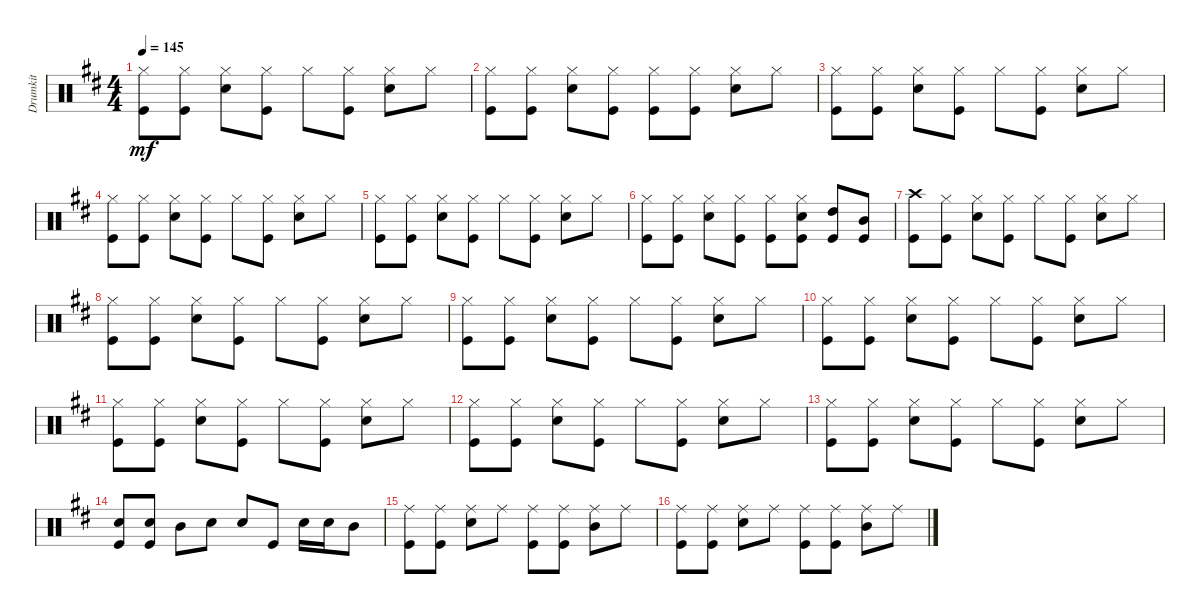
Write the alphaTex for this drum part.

\track ("Drumkit" "Drumkit") {instrument percussion}
\staff {score}
\articulation defaults
\ts (4 4)
\tempo 145
\clef neutral
\ks d
("Kick (hit)" "Hi-Hat (closed)").8{dy mf} ("Kick (hit)" "Hi-Hat (closed)").8 ("Snare (hit) 2" "Hi-Hat (closed)").8 ("Kick (hit)" "Hi-Hat (closed)").8 "Hi-Hat (closed)".8 ("Hi-Hat (closed)" "Kick (hit)").8 ("Hi-Hat (closed)" "Snare (hit) 2").8 "Hi-Hat (closed)".8 |
("Kick (hit)" "Hi-Hat (closed)").8 ("Kick (hit)" "Hi-Hat (closed)").8 ("Snare (hit) 2" "Hi-Hat (closed)").8 ("Kick (hit)" "Hi-Hat (closed)").8 ("Hi-Hat (closed)" "Kick (hit)").8 ("Hi-Hat (closed)" "Kick (hit)").8 ("Hi-Hat (closed)" "Snare (hit) 2").8 "Hi-Hat (closed)".8 |
("Kick (hit)" "Hi-Hat (closed)").8 ("Kick (hit)" "Hi-Hat (closed)").8 ("Snare (hit) 2" "Hi-Hat (closed)").8 ("Kick (hit)" "Hi-Hat (closed)").8 "Hi-Hat (closed)".8 ("Hi-Hat (closed)" "Kick (hit)").8 ("Hi-Hat (closed)" "Snare (hit) 2").8 "Hi-Hat (closed)".8 |
("Kick (hit)" "Hi-Hat (closed)").8 ("Kick (hit)" "Hi-Hat (closed)").8 ("Snare (hit) 2" "Hi-Hat (closed)").8 ("Kick (hit)" "Hi-Hat (closed)").8 "Hi-Hat (closed)".8 ("Hi-Hat (closed)" "Kick (hit)").8 ("Hi-Hat (closed)" "Snare (hit) 2").8 "Hi-Hat (closed)".8 |
("Kick (hit)" "Hi-Hat (closed)").8 ("Kick (hit)" "Hi-Hat (closed)").8 ("Snare (hit) 2" "Hi-Hat (closed)").8 ("Kick (hit)" "Hi-Hat (closed)").8 "Hi-Hat (closed)".8 ("Hi-Hat (closed)" "Kick (hit)").8 ("Hi-Hat (closed)" "Snare (hit) 2").8 "Hi-Hat (closed)".8 |
("Kick (hit)" "Hi-Hat (closed)").8 ("Kick (hit)" "Hi-Hat (closed)").8 ("Snare (hit) 2" "Hi-Hat (closed)").8 ("Kick (hit)" "Hi-Hat (closed)").8 ("Hi-Hat (closed)" "Kick (hit)").8 ("Hi-Hat (closed)" "Kick (hit)" "Snare (hit) 2").8 ("Kick (hit)" "High Tom (hit)").8 ("Kick (hit)" "Mid Tom (hit)").8 |
("Kick (hit)" "Crash high (hit)").8 ("Kick (hit)" "Hi-Hat (closed)").8 ("Snare (hit) 2" "Hi-Hat (closed)").8 ("Kick (hit)" "Hi-Hat (closed)").8 "Hi-Hat (closed)".8 ("Hi-Hat (closed)" "Kick (hit)").8 ("Hi-Hat (closed)" "Snare (hit) 2").8 "Hi-Hat (closed)".8 |
("Kick (hit)" "Hi-Hat (closed)").8 ("Kick (hit)" "Hi-Hat (closed)").8 ("Snare (hit) 2" "Hi-Hat (closed)").8 ("Kick (hit)" "Hi-Hat (closed)").8 "Hi-Hat (closed)".8 ("Hi-Hat (closed)" "Kick (hit)").8 ("Hi-Hat (closed)" "Snare (hit) 2").8 "Hi-Hat (closed)".8 |
("Kick (hit)" "Hi-Hat (closed)").8 ("Kick (hit)" "Hi-Hat (closed)").8 ("Snare (hit) 2" "Hi-Hat (closed)").8 ("Kick (hit)" "Hi-Hat (closed)").8 "Hi-Hat (closed)".8 ("Hi-Hat (closed)" "Kick (hit)").8 ("Hi-Hat (closed)" "Snare (hit) 2").8 "Hi-Hat (closed)".8 |
("Kick (hit)" "Hi-Hat (closed)").8 ("Kick (hit)" "Hi-Hat (closed)").8 ("Snare (hit) 2" "Hi-Hat (closed)").8 ("Kick (hit)" "Hi-Hat (closed)").8 "Hi-Hat (closed)".8 ("Hi-Hat (closed)" "Kick (hit)").8 ("Hi-Hat (closed)" "Snare (hit) 2").8 "Hi-Hat (closed)".8 |
("Kick (hit)" "Hi-Hat (closed)").8 ("Kick (hit)" "Hi-Hat (closed)").8 ("Snare (hit) 2" "Hi-Hat (closed)").8 ("Kick (hit)" "Hi-Hat (closed)").8 "Hi-Hat (closed)".8 ("Hi-Hat (closed)" "Kick (hit)").8 ("Hi-Hat (closed)" "Snare (hit) 2").8 "Hi-Hat (closed)".8 |
("Kick (hit)" "Hi-Hat (closed)").8 ("Kick (hit)" "Hi-Hat (closed)").8 ("Snare (hit) 2" "Hi-Hat (closed)").8 ("Kick (hit)" "Hi-Hat (closed)").8 "Hi-Hat (closed)".8 ("Hi-Hat (closed)" "Kick (hit)").8 ("Hi-Hat (closed)" "Snare (hit) 2").8 "Hi-Hat (closed)".8 |
("Kick (hit)" "Hi-Hat (closed)").8 ("Kick (hit)" "Hi-Hat (closed)").8 ("Snare (hit) 2" "Hi-Hat (closed)").8 ("Kick (hit)" "Hi-Hat (closed)").8 "Hi-Hat (closed)".8 ("Hi-Hat (closed)" "Kick (hit)").8 ("Hi-Hat (closed)" "Snare (hit) 2").8 "Hi-Hat (closed)".8 |
("Snare (hit) 2" "Kick (hit)").8 ("Snare (hit) 2" "Kick (hit)").8 "Mid Tom (hit)".8 "Snare (hit) 2".8 "Snare (hit) 2".8 "Kick (hit)".8 "Snare (hit) 2".16 "Snare (hit) 2".16 "Mid Tom (hit)".8 |
("Kick (hit)" "Ride (middle)").8 ("Kick (hit)" "Ride (middle)").8 ("Snare (hit) 2" "Ride (middle)").8 "Ride (middle)".8 ("Kick (hit)" "Ride (middle)").8 ("Kick (hit)" "Ride (middle)").8 ("Mid Tom (hit)" "Ride (middle)").8 "Ride (middle)".8 |
("Kick (hit)" "Ride (middle)").8 ("Kick (hit)" "Ride (middle)").8 ("Snare (hit) 2" "Ride (middle)").8 "Ride (middle)".8 ("Kick (hit)" "Ride (middle)").8 ("Kick (hit)" "Ride (middle)").8 ("Mid Tom (hit)" "Ride (middle)").8 "Ride (middle)".8
